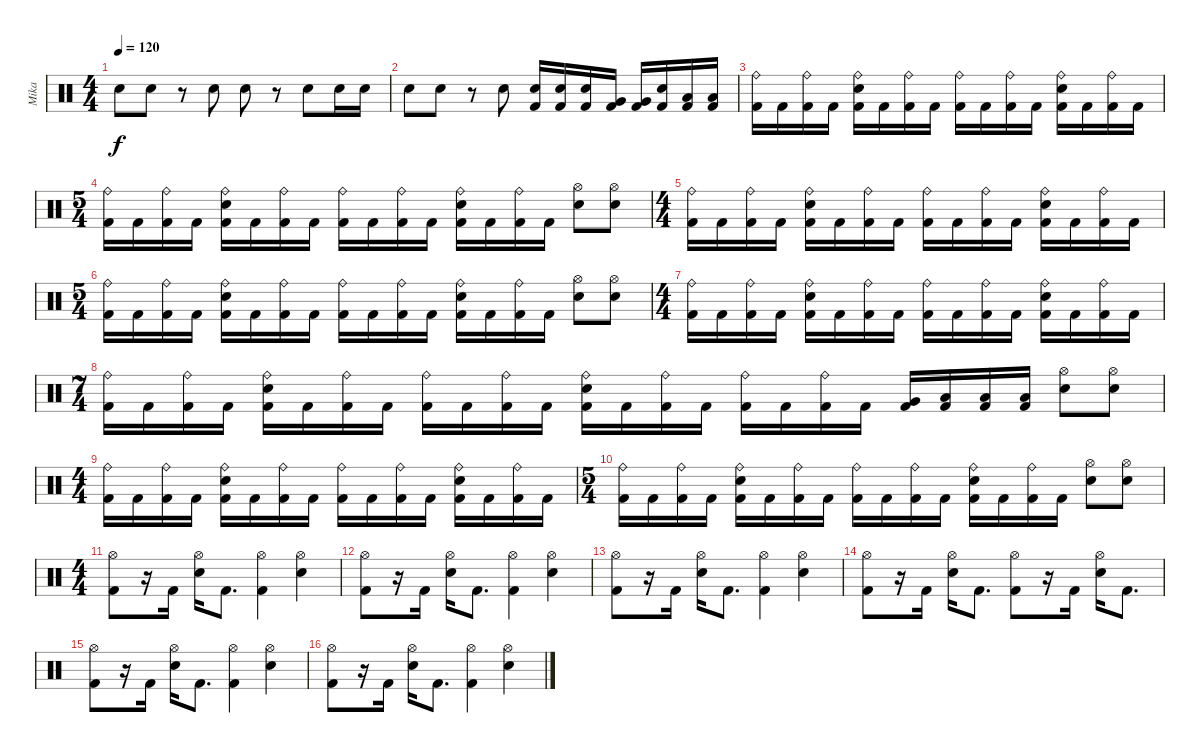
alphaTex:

\track ("Mika" "Mika") {instrument percussion}
\staff {score}
\articulation defaults
\ts (4 4)
\tempo 120
\clef neutral
\ks c "Electric Snare (hit)".8{dy f} "Electric Snare (hit)".8
r.8 "Electric Snare (hit)".8 "Electric Snare (hit)".8 r.8 "Snare (hit) 2".8 "Snare (hit) 2".16 "Snare (hit) 2".16 |
"Electric Snare (hit)".8 "Electric Snare (hit)".8 r.8 "Electric Snare (hit)".8 ("Electric Snare (hit)" "Kick (hit) 2").16 ("Electric Snare (hit)" "Kick (hit) 2").16 ("Electric Snare (hit)" "Kick (hit) 2").16 ("Very Low Tom (hit)" "Kick (hit) 2").16 ("Very Low Tom (hit)" "Kick (hit) 2").16 ("Snare (hit) 2" "Kick (hit) 2").16 ("Low Floor Tom (hit)" "Kick (hit) 2").16 ("Low Floor Tom (hit)" "Kick (hit) 2").16 |
("Ride (bell)" "Kick (hit) 2").16 "Kick (hit) 2".16 ("Ride (bell)" "Kick (hit) 2").16 "Kick (hit) 2".16 ("Ride (bell)" "Electric Snare (hit)" "Kick (hit) 2").16 "Kick (hit) 2".16 ("Ride (bell)" "Kick (hit) 2").16 "Kick (hit) 2".16 ("Ride (bell)" "Kick (hit) 2").16 "Kick (hit) 2".16 ("Ride (bell)" "Kick (hit) 2").16 "Kick (hit) 2".16 ("Ride (bell)" "Electric Snare (hit)" "Kick (hit) 2").16 "Kick (hit) 2".16 ("Ride (bell)" "Kick (hit) 2").16 "Kick (hit) 2".16 |
\ts (5 4)
("Ride (bell)" "Kick (hit) 2").16 "Kick (hit) 2".16 ("Ride (bell)" "Kick (hit) 2").16 "Kick (hit) 2".16 ("Ride (bell)" "Electric Snare (hit)" "Kick (hit) 2").16 "Kick (hit) 2".16 ("Ride (bell)" "Kick (hit) 2").16 "Kick (hit) 2".16 ("Ride (bell)" "Kick (hit) 2").16 "Kick (hit) 2".16 ("Ride (bell)" "Kick (hit) 2").16 "Kick (hit) 2".16 ("Ride (bell)" "Electric Snare (hit)" "Kick (hit) 2").16 "Kick (hit) 2".16 ("Ride (bell)" "Kick (hit) 2").16 "Kick (hit) 2".16 ("Hi-Hat (open)" "Electric Snare (hit)").8 ("Hi-Hat (open)" "Electric Snare (hit)").8 |
\ts (4 4)
("Ride (bell)" "Kick (hit) 2").16 "Kick (hit) 2".16 ("Ride (bell)" "Kick (hit) 2").16 "Kick (hit) 2".16 ("Ride (bell)" "Electric Snare (hit)" "Kick (hit) 2").16 "Kick (hit) 2".16 ("Ride (bell)" "Kick (hit) 2").16 "Kick (hit) 2".16 ("Ride (bell)" "Kick (hit) 2").16 "Kick (hit) 2".16 ("Ride (bell)" "Kick (hit) 2").16 "Kick (hit) 2".16 ("Ride (bell)" "Electric Snare (hit)" "Kick (hit) 2").16 "Kick (hit) 2".16 ("Ride (bell)" "Kick (hit) 2").16 "Kick (hit) 2".16 |
\ts (5 4)
("Ride (bell)" "Kick (hit) 2").16 "Kick (hit) 2".16 ("Ride (bell)" "Kick (hit) 2").16 "Kick (hit) 2".16 ("Ride (bell)" "Electric Snare (hit)" "Kick (hit) 2").16 "Kick (hit) 2".16 ("Ride (bell)" "Kick (hit) 2").16 "Kick (hit) 2".16 ("Ride (bell)" "Kick (hit) 2").16 "Kick (hit) 2".16 ("Ride (bell)" "Kick (hit) 2").16 "Kick (hit) 2".16 ("Ride (bell)" "Electric Snare (hit)" "Kick (hit) 2").16 "Kick (hit) 2".16 ("Ride (bell)" "Kick (hit) 2").16 "Kick (hit) 2".16 ("Hi-Hat (open)" "Electric Snare (hit)").8 ("Hi-Hat (open)" "Electric Snare (hit)").8 |
\ts (4 4)
("Ride (bell)" "Kick (hit) 2").16 "Kick (hit) 2".16 ("Ride (bell)" "Kick (hit) 2").16 "Kick (hit) 2".16 ("Ride (bell)" "Electric Snare (hit)" "Kick (hit) 2").16 "Kick (hit) 2".16 ("Ride (bell)" "Kick (hit) 2").16 "Kick (hit) 2".16 ("Ride (bell)" "Kick (hit) 2").16 "Kick (hit) 2".16 ("Ride (bell)" "Kick (hit) 2").16 "Kick (hit) 2".16 ("Ride (bell)" "Electric Snare (hit)" "Kick (hit) 2").16 "Kick (hit) 2".16 ("Ride (bell)" "Kick (hit) 2").16 "Kick (hit) 2".16 |
\ts (7 4)
("Ride (bell)" "Kick (hit) 2").16 "Kick (hit) 2".16 ("Ride (bell)" "Kick (hit) 2").16 "Kick (hit) 2".16 ("Ride (bell)" "Electric Snare (hit)" "Kick (hit) 2").16 "Kick (hit) 2".16 ("Ride (bell)" "Kick (hit) 2").16 "Kick (hit) 2".16 ("Ride (bell)" "Kick (hit) 2").16 "Kick (hit) 2".16 ("Ride (bell)" "Kick (hit) 2").16 "Kick (hit) 2".16 ("Ride (bell)" "Electric Snare (hit)" "Kick (hit) 2").16 "Kick (hit) 2".16 ("Ride (bell)" "Kick (hit) 2").16 "Kick (hit) 2".16 ("Ride (bell)" "Kick (hit) 2").16 "Kick (hit) 2".16 ("Ride (bell)" "Kick (hit) 2").16 "Kick (hit) 2".16 ("Very Low Tom (hit)" "Kick (hit) 2").16 ("Low Floor Tom (hit)" "Kick (hit) 2").16 ("Low Tom (hit)" "Kick (hit) 2").16 ("Low Floor Tom (hit)" "Kick (hit) 2").16 ("Hi-Hat (open)" "Electric Snare (hit)").8 ("Hi-Hat (open)" "Electric Snare (hit)").8 |
\ts (4 4)
("Ride (bell)" "Kick (hit) 2").16 "Kick (hit) 2".16 ("Ride (bell)" "Kick (hit) 2").16 "Kick (hit) 2".16 ("Ride (bell)" "Electric Snare (hit)" "Kick (hit) 2").16 "Kick (hit) 2".16 ("Ride (bell)" "Kick (hit) 2").16 "Kick (hit) 2".16 ("Ride (bell)" "Kick (hit) 2").16 "Kick (hit) 2".16 ("Ride (bell)" "Kick (hit) 2").16 "Kick (hit) 2".16 ("Ride (bell)" "Electric Snare (hit)" "Kick (hit) 2").16 "Kick (hit) 2".16 ("Ride (bell)" "Kick (hit) 2").16 "Kick (hit) 2".16 |
\ts (5 4)
("Ride (bell)" "Kick (hit) 2").16 "Kick (hit) 2".16 ("Ride (bell)" "Kick (hit) 2").16 "Kick (hit) 2".16 ("Ride (bell)" "Electric Snare (hit)" "Kick (hit) 2").16 "Kick (hit) 2".16 ("Ride (bell)" "Kick (hit) 2").16 "Kick (hit) 2".16 ("Ride (bell)" "Kick (hit) 2").16 "Kick (hit) 2".16 ("Ride (bell)" "Kick (hit) 2").16 "Kick (hit) 2".16 ("Ride (bell)" "Electric Snare (hit)" "Kick (hit) 2").16 "Kick (hit) 2".16 ("Ride (bell)" "Kick (hit) 2").16 "Kick (hit) 2".16 ("Hi-Hat (open)" "Electric Snare (hit)").8 ("Hi-Hat (open)" "Electric Snare (hit)").8 |
\ts (4 4)
("Hi-Hat (open)" "Kick (hit) 2").8 r.16 "Kick (hit) 2".16 ("Hi-Hat (open)" "Electric Snare (hit)").16 "Kick (hit) 2".8{d} ("Hi-Hat (open)" "Kick (hit) 2").4 ("Hi-Hat (open)" "Electric Snare (hit)").4 |
("Hi-Hat (open)" "Kick (hit) 2").8 r.16 "Kick (hit) 2".16 ("Hi-Hat (open)" "Electric Snare (hit)").16 "Kick (hit) 2".8{d} ("Hi-Hat (open)" "Kick (hit) 2").4 ("Hi-Hat (open)" "Electric Snare (hit)").4 |
("Hi-Hat (open)" "Kick (hit) 2").8 r.16 "Kick (hit) 2".16 ("Hi-Hat (open)" "Electric Snare (hit)").16 "Kick (hit) 2".8{d} ("Hi-Hat (open)" "Kick (hit) 2").4 ("Hi-Hat (open)" "Electric Snare (hit)").4 |
("Hi-Hat (open)" "Kick (hit) 2").8 r.16 "Kick (hit) 2".16 ("Hi-Hat (open)" "Electric Snare (hit)").16 "Kick (hit) 2".8{d} ("Hi-Hat (open)" "Kick (hit) 2").8 r.16 "Kick (hit) 2".16 ("Hi-Hat (open)" "Electric Snare (hit)").16 "Kick (hit) 2".8{d} |
("Hi-Hat (open)" "Kick (hit) 2").8 r.16 "Kick (hit) 2".16 ("Hi-Hat (open)" "Electric Snare (hit)").16 "Kick (hit) 2".8{d} ("Hi-Hat (open)" "Kick (hit) 2").4 ("Hi-Hat (open)" "Electric Snare (hit)").4 |
("Hi-Hat (open)" "Kick (hit) 2").8 r.16 "Kick (hit) 2".16 ("Hi-Hat (open)" "Electric Snare (hit)").16 "Kick (hit) 2".8{d} ("Hi-Hat (open)" "Kick (hit) 2").4 ("Hi-Hat (open)" "Electric Snare (hit)").4
